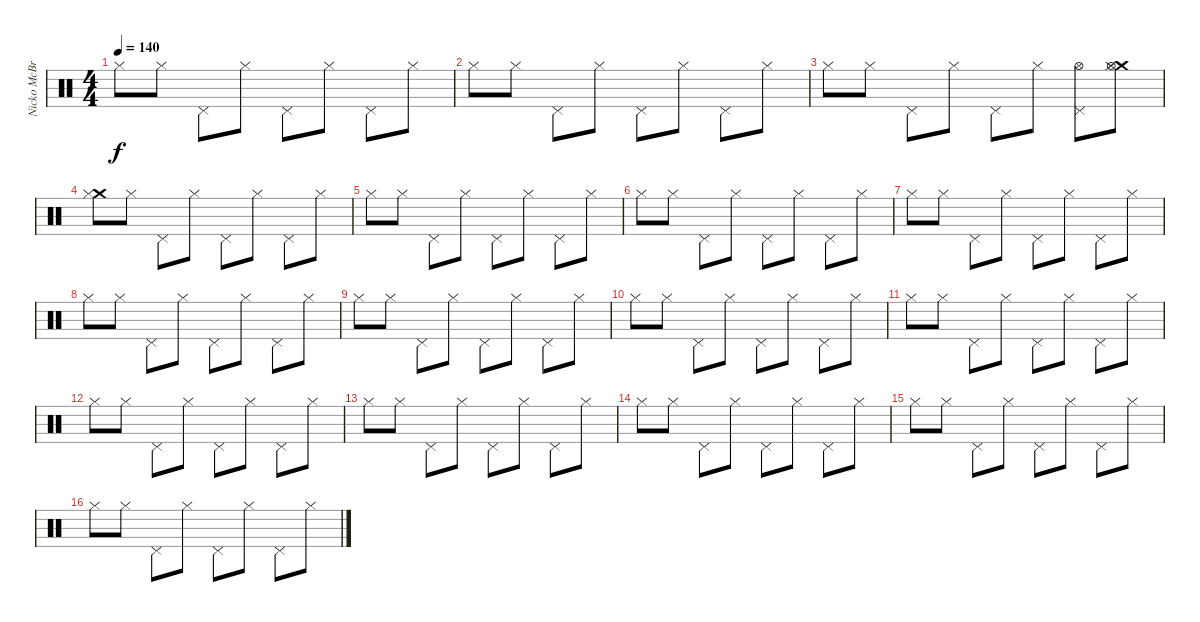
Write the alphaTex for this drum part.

\track ("Nicko McBrain" "Nicko McBr") {instrument percussion}
\staff {score}
\articulation defaults
\ts (4 4)
\tempo 140
\clef neutral
\ks c "Hi-Hat (closed)".8{dy f} "Hi-Hat (closed)".8 "Pedal Hi-Hat (hit)".8 "Hi-Hat (closed)".8 "Pedal Hi-Hat (hit)".8 "Hi-Hat (closed)".8 "Pedal Hi-Hat (hit)".8 "Hi-Hat (closed)".8
|
"Hi-Hat (closed)".8 "Hi-Hat (closed)".8 "Pedal Hi-Hat (hit)".8 "Hi-Hat (closed)".8 "Pedal Hi-Hat (hit)".8 "Hi-Hat (closed)".8 "Pedal Hi-Hat (hit)".8 "Hi-Hat (closed)".8 |
"Hi-Hat (closed)".8 "Hi-Hat (closed)".8 "Pedal Hi-Hat (hit)".8 "Hi-Hat (closed)".8 "Pedal Hi-Hat (hit)".8 "Hi-Hat (closed)".8 ("Hi-Hat (open)" "Pedal Hi-Hat (hit)").8 ("Crash medium (hit)" "Hi-Hat (open)" "Hi-Hat (closed)").8 |
("Crash medium (hit)" "Hi-Hat (closed)").8 "Hi-Hat (closed)".8 "Pedal Hi-Hat (hit)".8 "Hi-Hat (closed)".8 "Pedal Hi-Hat (hit)".8 "Hi-Hat (closed)".8 "Pedal Hi-Hat (hit)".8 "Hi-Hat (closed)".8 |
"Hi-Hat (closed)".8 "Hi-Hat (closed)".8 "Pedal Hi-Hat (hit)".8 "Hi-Hat (closed)".8 "Pedal Hi-Hat (hit)".8 "Hi-Hat (closed)".8 "Pedal Hi-Hat (hit)".8 "Hi-Hat (closed)".8 |
"Hi-Hat (closed)".8 "Hi-Hat (closed)".8 "Pedal Hi-Hat (hit)".8 "Hi-Hat (closed)".8 "Pedal Hi-Hat (hit)".8 "Hi-Hat (closed)".8 "Pedal Hi-Hat (hit)".8 "Hi-Hat (closed)".8 |
"Hi-Hat (closed)".8 "Hi-Hat (closed)".8 "Pedal Hi-Hat (hit)".8 "Hi-Hat (closed)".8 "Pedal Hi-Hat (hit)".8 "Hi-Hat (closed)".8 "Pedal Hi-Hat (hit)".8 "Hi-Hat (closed)".8 |
"Hi-Hat (closed)".8 "Hi-Hat (closed)".8 "Pedal Hi-Hat (hit)".8 "Hi-Hat (closed)".8 "Pedal Hi-Hat (hit)".8 "Hi-Hat (closed)".8 "Pedal Hi-Hat (hit)".8 "Hi-Hat (closed)".8 |
"Hi-Hat (closed)".8 "Hi-Hat (closed)".8 "Pedal Hi-Hat (hit)".8 "Hi-Hat (closed)".8 "Pedal Hi-Hat (hit)".8 "Hi-Hat (closed)".8 "Pedal Hi-Hat (hit)".8 "Hi-Hat (closed)".8 |
"Hi-Hat (closed)".8 "Hi-Hat (closed)".8 "Pedal Hi-Hat (hit)".8 "Hi-Hat (closed)".8 "Pedal Hi-Hat (hit)".8 "Hi-Hat (closed)".8 "Pedal Hi-Hat (hit)".8 "Hi-Hat (closed)".8 |
"Hi-Hat (closed)".8 "Hi-Hat (closed)".8 "Pedal Hi-Hat (hit)".8 "Hi-Hat (closed)".8 "Pedal Hi-Hat (hit)".8 "Hi-Hat (closed)".8 "Pedal Hi-Hat (hit)".8 "Hi-Hat (closed)".8 |
"Hi-Hat (closed)".8 "Hi-Hat (closed)".8 "Pedal Hi-Hat (hit)".8 "Hi-Hat (closed)".8 "Pedal Hi-Hat (hit)".8 "Hi-Hat (closed)".8 "Pedal Hi-Hat (hit)".8 "Hi-Hat (closed)".8 |
"Hi-Hat (closed)".8 "Hi-Hat (closed)".8 "Pedal Hi-Hat (hit)".8 "Hi-Hat (closed)".8 "Pedal Hi-Hat (hit)".8 "Hi-Hat (closed)".8 "Pedal Hi-Hat (hit)".8 "Hi-Hat (closed)".8 |
"Hi-Hat (closed)".8 "Hi-Hat (closed)".8 "Pedal Hi-Hat (hit)".8 "Hi-Hat (closed)".8 "Pedal Hi-Hat (hit)".8 "Hi-Hat (closed)".8 "Pedal Hi-Hat (hit)".8 "Hi-Hat (closed)".8 |
"Hi-Hat (closed)".8 "Hi-Hat (closed)".8 "Pedal Hi-Hat (hit)".8 "Hi-Hat (closed)".8 "Pedal Hi-Hat (hit)".8 "Hi-Hat (closed)".8 "Pedal Hi-Hat (hit)".8 "Hi-Hat (closed)".8 |
"Hi-Hat (closed)".8 "Hi-Hat (closed)".8 "Pedal Hi-Hat (hit)".8 "Hi-Hat (closed)".8 "Pedal Hi-Hat (hit)".8 "Hi-Hat (closed)".8 "Pedal Hi-Hat (hit)".8 "Hi-Hat (closed)".8
